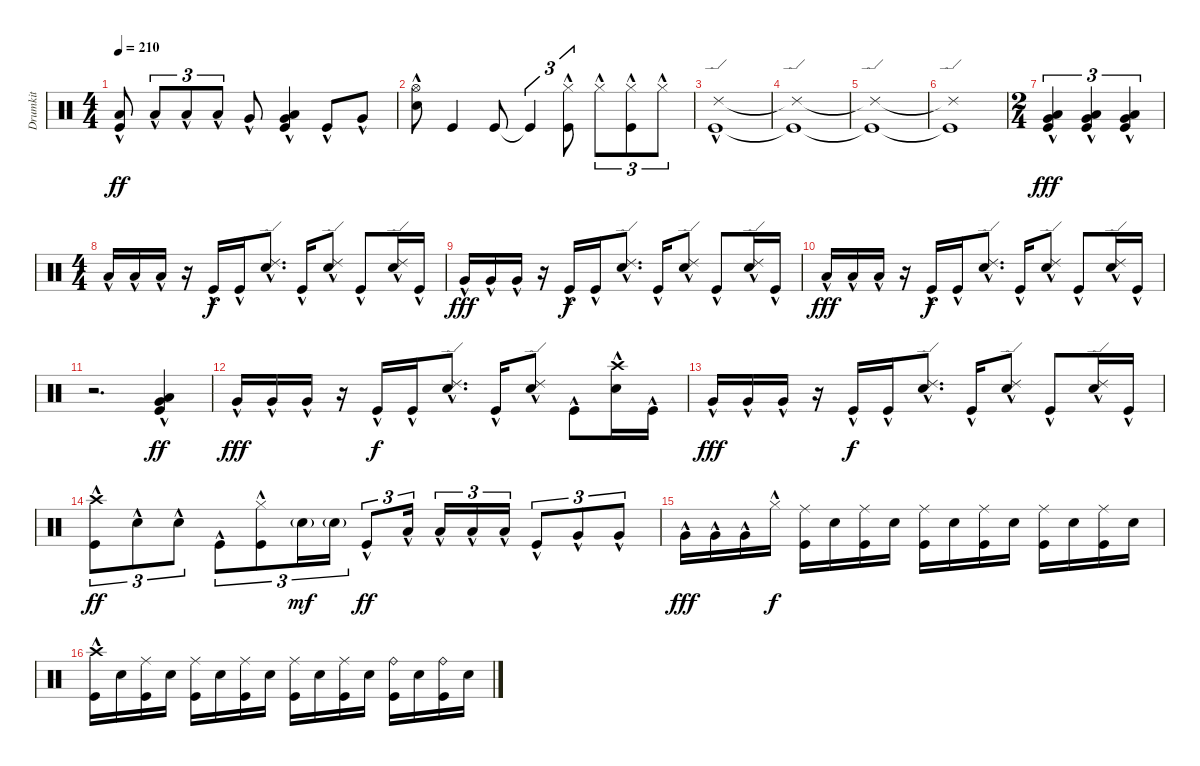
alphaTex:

\track ("Drumkit" "Drumkit") {instrument percussion}
\staff {score}
\articulation defaults
\ts (4 4)
\tempo 210
\clef neutral
\ks c
("Kick (hit)"{hac} "Low Tom (hit)"{hac}).8{dy ff} "Low Tom (hit)"{hac}.8{tu (3 2)} "Low Tom (hit)"{hac}.8{tu (3 2)} "Low Tom (hit)"{hac}.8{tu (3 2)} "Very Low Tom (hit)"{hac}.8 ("Low Tom (hit)"{hac} "Kick (hit)"{hac} "Very Low Tom (hit)"{hac}).4 "Kick (hit)"{hac}.8 "Very Low Tom (hit)"{hac}.8 |
("Snare (hit) 2" "Hi-Hat (open)"{hac}).8 "Kick (hit)".4 "Kick (hit)".8 "Kick (hit)"{t}.4{tu (3 2)} ("Kick (hit)"{hac} "Hi-Hat (closed)"{hac}).8{tu (3 2)} "Hi-Hat (closed)"{hac}.8{tu (3 2)} ("Kick (hit)"{hac} "Hi-Hat (closed)"{hac}).8{tu (3 2)} "Hi-Hat (closed)"{hac}.8{tu (3 2)} |
("Kick (hit)"{hac} "Ride (edge) 2"{hac}).1 |
("Kick (hit)"{t} "Ride (edge) 2"{t}).1 |
("Kick (hit)"{t} "Ride (edge) 2"{t}).1 |
("Kick (hit)"{t} "Ride (edge) 2"{t}).1 |
\ts (2 4)
("Very Low Tom (hit)"{hac} "Kick (hit)"{hac} "Low Tom (hit)"{hac}).4{tu (3 2) dy fff} ("Very Low Tom (hit)"{hac} "Kick (hit)"{hac} "Low Tom (hit)"{hac}).4{tu (3 2)} ("Very Low Tom (hit)"{hac} "Kick (hit)"{hac} "Low Tom (hit)"{hac}).4{tu (3 2)} |
\ts (4 4)
"Low Tom (hit)"{hac}.16 "Low Tom (hit)"{hac}.16 "Low Tom (hit)"{hac}.16 r.16 "Kick (hit)"{hac}.16{dy f} "Kick (hit)"{hac}.16 ("Snare (hit) 2"{hac} "Ride (edge) 2"{hac}).8{d} "Kick (hit)"{hac}.16 ("Snare (hit) 2"{hac} "Ride (edge) 2"{hac}).8 "Kick (hit)"{hac}.8 ("Snare (hit) 2"{hac} "Ride (edge) 2"{hac}).16 "Kick (hit)"{hac}.16 |
"Very Low Tom (hit)"{hac}.16{dy fff} "Very Low Tom (hit)"{hac}.16 "Very Low Tom (hit)"{hac}.16 r.16 "Kick (hit)"{hac}.16{dy f} "Kick (hit)"{hac}.16 ("Snare (hit) 2"{hac} "Ride (edge) 2"{hac}).8{d} "Kick (hit)"{hac}.16 ("Snare (hit) 2"{hac} "Ride (edge) 2"{hac}).8 "Kick (hit)"{hac}.8 ("Snare (hit) 2"{hac} "Ride (edge) 2"{hac}).16 "Kick (hit)"{hac}.16 |
"Low Tom (hit)"{hac}.16{dy fff} "Low Tom (hit)"{hac}.16 "Low Tom (hit)"{hac}.16 r.16 "Kick (hit)"{hac}.16{dy f} "Kick (hit)"{hac}.16 ("Snare (hit) 2"{hac} "Ride (edge) 2"{hac}).8{d} "Kick (hit)"{hac}.16 ("Snare (hit) 2"{hac} "Ride (edge) 2"{hac}).8 "Kick (hit)"{hac}.8 ("Snare (hit) 2"{hac} "Ride (edge) 2"{hac}).16 "Kick (hit)"{hac}.16 |
r.2{d} ("Kick (hit)"{hac} "Very Low Tom (hit)"{hac} "Low Tom (hit)"{hac}).4{dy ff} |
"Very Low Tom (hit)"{hac}.16{dy fff} "Very Low Tom (hit)"{hac}.16 "Very Low Tom (hit)"{hac}.16 r.16 "Kick (hit)"{hac}.16{dy f} "Kick (hit)"{hac}.16 ("Snare (hit) 2"{hac} "Ride (edge) 2"{hac}).8{d} "Kick (hit)"{hac}.16 ("Snare (hit) 2"{hac} "Ride (edge) 2"{hac}).8 "Kick (hit)"{hac}.8 ("Snare (hit) 2"{hac} "Crash high (hit)"{hac}).16 "Kick (hit)"{hac}.16 |
"Very Low Tom (hit)"{hac}.16{dy fff} "Very Low Tom (hit)"{hac}.16 "Very Low Tom (hit)"{hac}.16 r.16 "Kick (hit)"{hac}.16{dy f} "Kick (hit)"{hac}.16 ("Snare (hit) 2"{hac} "Ride (edge) 2"{hac}).8{d} "Kick (hit)"{hac}.16 ("Snare (hit) 2"{hac} "Ride (edge) 2"{hac}).8 "Kick (hit)"{hac}.8 ("Snare (hit) 2"{hac} "Ride (edge) 2"{hac}).16 "Kick (hit)"{hac}.16 |
("Kick (hit)"{hac} "Crash high (hit)"{hac}).8{tu (3 2) dy ff} "Snare (hit) 2"{hac}.8{tu (3 2)} "Snare (hit) 2"{hac}.8{tu (3 2)} "Kick (hit)"{hac}.8{tu (3 2)} ("Kick (hit)"{hac} "Hi-Hat (closed)"{hac}).8{tu (3 2)} "Snare (hit) 2"{g}.16{tu (3 2) dy mf} "Snare (hit) 2"{g}.16{tu (3 2)} "Kick (hit)"{hac}.8{tu (3 2) dy ff} "Low Tom (hit)"{hac}.16{tu (3 2)} "Low Tom (hit)"{hac}.16{tu (3 2)} "Low Tom (hit)"{hac}.16{tu (3 2)} "Low Tom (hit)"{hac}.16{tu (3 2)} "Kick (hit)"{hac}.8{tu (3 2)} "Very Low Tom (hit)"{hac}.8{tu (3 2)} "Very Low Tom (hit)"{hac}.8{tu (3 2)} |
"Very Low Tom (hit)"{hac}.16{dy fff} "Very Low Tom (hit)"{hac}.16 "Very Low Tom (hit)"{hac}.16 "Hi-Hat (closed)"{hac}.16{dy f} ("Ride (middle)" "Kick (hit)").16 "Snare (hit) 2".16 ("Ride (middle)" "Kick (hit)").16 "Snare (hit) 2".16 ("Ride (middle)" "Kick (hit)").16 "Snare (hit) 2".16 ("Ride (middle)" "Kick (hit)").16 "Snare (hit) 2".16 ("Ride (middle)" "Kick (hit)").16 "Snare (hit) 2".16 ("Ride (middle)" "Kick (hit)").16 "Snare (hit) 2".16 |
("Kick (hit)" "Crash high (hit)"{hac}).16 "Snare (hit) 2".16 ("Ride (middle)" "Kick (hit)").16 "Snare (hit) 2".16 ("Ride (middle)" "Kick (hit)").16 "Snare (hit) 2".16 ("Ride (middle)" "Kick (hit)").16 "Snare (hit) 2".16 ("Ride (middle)" "Kick (hit)").16 "Snare (hit) 2".16 ("Ride (middle)" "Kick (hit)").16 "Snare (hit) 2".16 ("Ride (bell)" "Kick (hit)").16 "Snare (hit) 2".16 ("Ride (bell)" "Kick (hit)").16 "Snare (hit) 2".16
